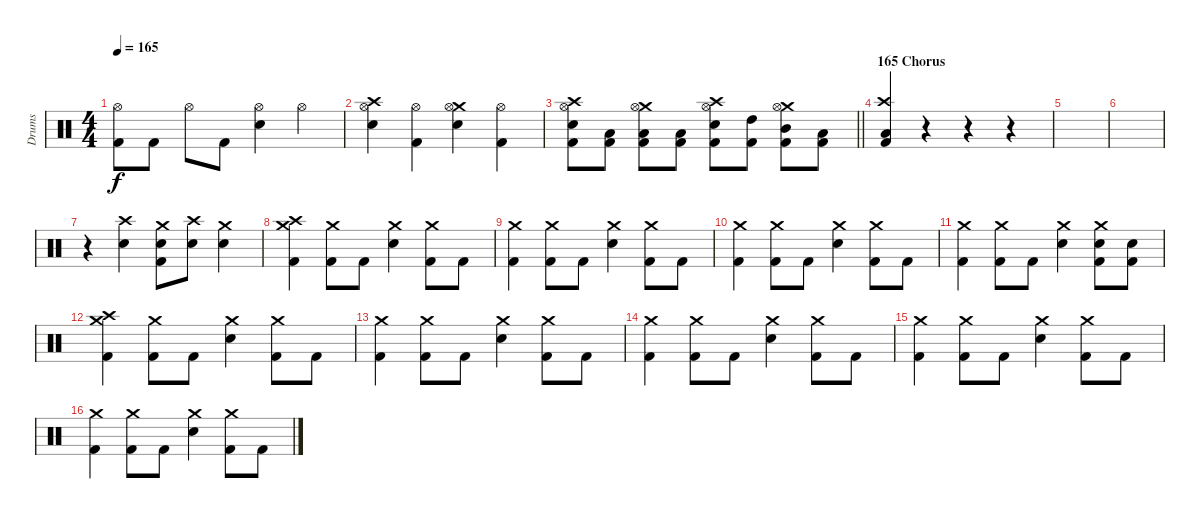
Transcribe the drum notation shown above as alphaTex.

\track ("Drums" "Drums") {instrument percussion}
\staff {score}
\articulation defaults
\ts (4 4)
\tempo 165
\clef neutral
\ks c
("Hi-Hat (open)" "Kick (hit) 2").8{dy f} "Kick (hit) 2".8 "Hi-Hat (open)".8 "Kick (hit) 2".8 ("Hi-Hat (open)" "Snare (hit) 2").4 "Hi-Hat (open)".4 |
("Crash high (hit)" "Hi-Hat (open)" "Snare (hit) 2").4 ("Hi-Hat (open)" "Kick (hit) 2").4 ("Crash medium (hit)" "Hi-Hat (open)" "Snare (hit) 2").4 ("Hi-Hat (open)" "Kick (hit) 2").4 |
\barLineRight lightlight
("Crash high (hit)" "Hi-Hat (open)" "Snare (hit) 2" "Kick (hit) 2").8 ("Low Floor Tom (hit)" "Kick (hit) 2").8 ("Crash medium (hit)" "Hi-Hat (open)" "Low Floor Tom (hit)" "Kick (hit) 2").8 ("Low Floor Tom (hit)" "Kick (hit) 2").8 ("Crash high (hit)" "Hi-Hat (open)" "Snare (hit) 2" "Kick (hit) 2").8 ("High Tom (hit)" "Kick (hit) 2").8 ("Crash medium (hit)" "Hi-Hat (open)" "Mid Tom (hit)" "Kick (hit) 2").8 ("Low Tom (hit)" "Kick (hit) 2").8 |
\section ("" "165 Chorus")
("Crash high (hit)" "Low Floor Tom (hit)" "Kick (hit) 2").4 r.4 r.4 r.4 |
|
|
r.4 ("Crash high (hit)" "Snare (hit) 2").4 ("Crash medium (hit)" "Snare (hit) 2" "Kick (hit) 2").8 ("Crash high (hit)" "Snare (hit) 2").8 ("Crash medium (hit)" "Snare (hit) 2").4 |
("Crash high (hit)" "Crash medium (hit)" "Kick (hit) 2").4 ("Crash medium (hit)" "Kick (hit) 2").8 "Kick (hit) 2".8 ("Crash medium (hit)" "Snare (hit) 2").4 ("Crash medium (hit)" "Kick (hit) 2").8 "Kick (hit) 2".8 |
("Crash medium (hit)" "Kick (hit) 2").4 ("Crash medium (hit)" "Kick (hit) 2").8 "Kick (hit) 2".8 ("Crash medium (hit)" "Snare (hit) 2").4 ("Crash medium (hit)" "Kick (hit) 2").8 "Kick (hit) 2".8 |
("Crash medium (hit)" "Kick (hit) 2").4 ("Crash medium (hit)" "Kick (hit) 2").8 "Kick (hit) 2".8 ("Crash medium (hit)" "Snare (hit) 2").4 ("Crash medium (hit)" "Kick (hit) 2").8 "Kick (hit) 2".8 |
("Crash medium (hit)" "Kick (hit) 2").4 ("Crash medium (hit)" "Kick (hit) 2").8 "Kick (hit) 2".8 ("Crash medium (hit)" "Snare (hit) 2").4 ("Crash medium (hit)" "Snare (hit) 2" "Kick (hit) 2").8 ("Snare (hit) 2" "Kick (hit) 2").8 |
("Crash high (hit)" "Crash medium (hit)" "Kick (hit) 2").4 ("Crash medium (hit)" "Kick (hit) 2").8 "Kick (hit) 2".8 ("Crash medium (hit)" "Snare (hit) 2").4 ("Crash medium (hit)" "Kick (hit) 2").8 "Kick (hit) 2".8 |
("Crash medium (hit)" "Kick (hit) 2").4 ("Crash medium (hit)" "Kick (hit) 2").8 "Kick (hit) 2".8 ("Crash medium (hit)" "Snare (hit) 2").4 ("Crash medium (hit)" "Kick (hit) 2").8 "Kick (hit) 2".8 |
("Crash medium (hit)" "Kick (hit) 2").4 ("Crash medium (hit)" "Kick (hit) 2").8 "Kick (hit) 2".8 ("Crash medium (hit)" "Snare (hit) 2").4 ("Crash medium (hit)" "Kick (hit) 2").8 "Kick (hit) 2".8 |
("Crash medium (hit)" "Kick (hit) 2").4 ("Crash medium (hit)" "Kick (hit) 2").8 "Kick (hit) 2".8 ("Crash medium (hit)" "Snare (hit) 2").4 ("Crash medium (hit)" "Kick (hit) 2").8 "Kick (hit) 2".8 |
("Crash medium (hit)" "Kick (hit) 2").4 ("Crash medium (hit)" "Kick (hit) 2").8 "Kick (hit) 2".8 ("Crash medium (hit)" "Snare (hit) 2").4 ("Crash medium (hit)" "Kick (hit) 2").8 "Kick (hit) 2".8
